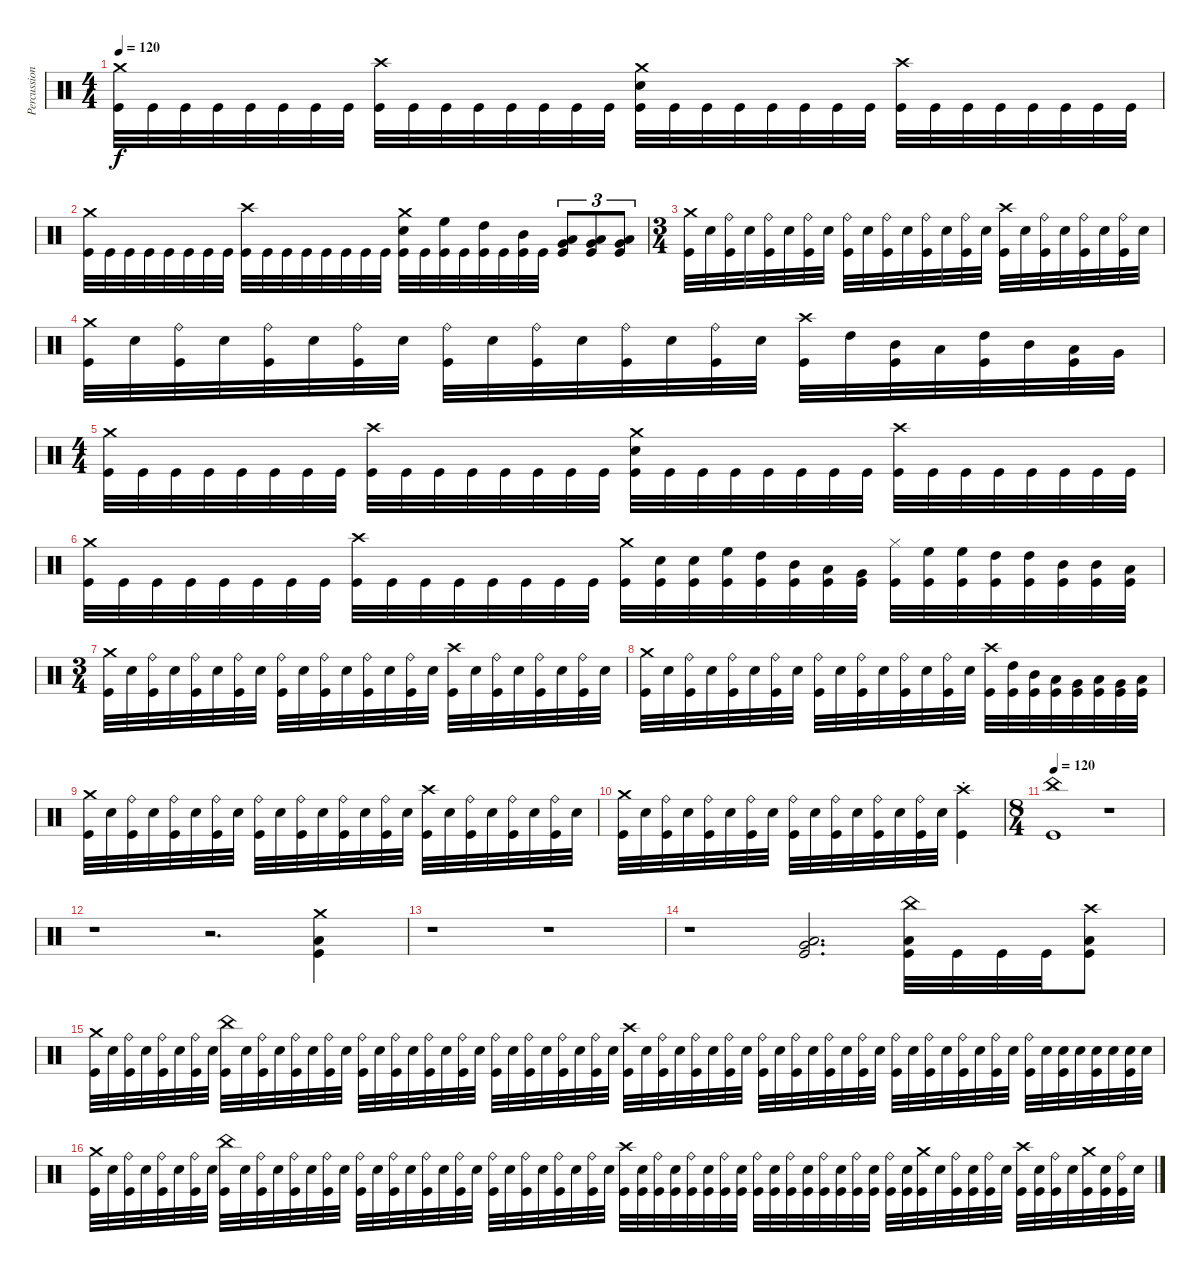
\track ("Percussion" "Percussion") {instrument percussion}
\staff {score}
\articulation defaults
\ts (4 4)
\tempo 120
\clef neutral
\ks c
("Crash medium (hit)" "Kick (hit)").32{dy f} "Kick (hit)".32 "Kick (hit)".32 "Kick (hit)".32 "Kick (hit)".32 "Kick (hit)".32 "Kick (hit)".32 "Kick (hit)".32 ("Crash high (hit)" "Kick (hit)").32 "Kick (hit)".32 "Kick (hit)".32 "Kick (hit)".32 "Kick (hit)".32 "Kick (hit)".32 "Kick (hit)".32 "Kick (hit)".32 ("Crash medium (hit)" "Snare (hit) 2" "Kick (hit)").32 "Kick (hit)".32 "Kick (hit)".32 "Kick (hit)".32 "Kick (hit)".32 "Kick (hit)".32 "Kick (hit)".32 "Kick (hit)".32 ("Crash high (hit)" "Kick (hit)").32 "Kick (hit)".32 "Kick (hit)".32 "Kick (hit)".32 "Kick (hit)".32 "Kick (hit)".32 "Kick (hit)".32 "Kick (hit)".32 |
("Crash medium (hit)" "Kick (hit)").32 "Kick (hit)".32 "Kick (hit)".32 "Kick (hit)".32 "Kick (hit)".32 "Kick (hit)".32 "Kick (hit)".32 "Kick (hit)".32 ("Crash high (hit)" "Kick (hit)").32 "Kick (hit)".32 "Kick (hit)".32 "Kick (hit)".32 "Kick (hit)".32 "Kick (hit)".32 "Kick (hit)".32 "Kick (hit)".32 ("Crash medium (hit)" "Snare (hit) 2" "Kick (hit)").32 "Kick (hit)".32 ("High Floor Tom (hit)" "Kick (hit)").32 "Kick (hit)".32 ("High Tom (hit)" "Kick (hit)").32 "Kick (hit)".32 ("Mid Tom (hit)" "Kick (hit)").32 "Kick (hit)".32 ("Very Low Tom (hit)" "Low Floor Tom (hit)" "Kick (hit)").8{tu (3 2)} ("Very Low Tom (hit)" "Low Floor Tom (hit)" "Kick (hit)").8{tu (3 2)} ("Very Low Tom (hit)" "Low Floor Tom (hit)" "Kick (hit)").8{tu (3 2)} |
\ts (3 4)
("Crash medium (hit)" "Kick (hit)").32 "Snare (hit) 2".32 ("Ride (bell)" "Kick (hit)").32 "Snare (hit) 2".32 ("Ride (bell)" "Kick (hit)").32 "Snare (hit) 2".32 ("Ride (bell)" "Kick (hit)").32 "Snare (hit) 2".32 ("Ride (bell)" "Kick (hit)").32 "Snare (hit) 2".32 ("Ride (bell)" "Kick (hit)").32 "Snare (hit) 2".32 ("Ride (bell)" "Kick (hit)").32 "Snare (hit) 2".32 ("Ride (bell)" "Kick (hit)").32 "Snare (hit) 2".32 ("Crash high (hit)" "Kick (hit)").32 "Snare (hit) 2".32 ("Ride (bell)" "Kick (hit)").32 "Snare (hit) 2".32 ("Ride (bell)" "Kick (hit)").32 "Snare (hit) 2".32 ("Ride (bell)" "Kick (hit)").32 "Snare (hit) 2".32 |
("Crash medium (hit)" "Kick (hit)").32 "Snare (hit) 2".32 ("Ride (bell)" "Kick (hit)").32 "Snare (hit) 2".32 ("Ride (bell)" "Kick (hit)").32 "Snare (hit) 2".32 ("Ride (bell)" "Kick (hit)").32 "Snare (hit) 2".32 ("Ride (bell)" "Kick (hit)").32 "Snare (hit) 2".32 ("Ride (bell)" "Kick (hit)").32 "Snare (hit) 2".32 ("Ride (bell)" "Kick (hit)").32 "Snare (hit) 2".32 ("Ride (bell)" "Kick (hit)").32 "Snare (hit) 2".32 ("Crash high (hit)" "Kick (hit)").32 "High Tom (hit)".32 ("Mid Tom (hit)" "Kick (hit)").32 "Low Tom (hit)".32 ("High Tom (hit)" "Kick (hit)").32 "Mid Tom (hit)".32 ("Low Tom (hit)" "Kick (hit)").32 "Very Low Tom (hit)".32 |
\ts (4 4)
("Crash medium (hit)" "Kick (hit)").32 "Kick (hit)".32 "Kick (hit)".32 "Kick (hit)".32 "Kick (hit)".32 "Kick (hit)".32 "Kick (hit)".32 "Kick (hit)".32 ("Crash high (hit)" "Kick (hit)").32 "Kick (hit)".32 "Kick (hit)".32 "Kick (hit)".32 "Kick (hit)".32 "Kick (hit)".32 "Kick (hit)".32 "Kick (hit)".32 ("Crash medium (hit)" "Snare (hit) 2" "Kick (hit)").32 "Kick (hit)".32 "Kick (hit)".32 "Kick (hit)".32 "Kick (hit)".32 "Kick (hit)".32 "Kick (hit)".32 "Kick (hit)".32 ("Crash high (hit)" "Kick (hit)").32 "Kick (hit)".32 "Kick (hit)".32 "Kick (hit)".32 "Kick (hit)".32 "Kick (hit)".32 "Kick (hit)".32 "Kick (hit)".32 |
("Crash medium (hit)" "Kick (hit)").32 "Kick (hit)".32 "Kick (hit)".32 "Kick (hit)".32 "Kick (hit)".32 "Kick (hit)".32 "Kick (hit)".32 "Kick (hit)".32 ("Crash high (hit)" "Kick (hit)").32 "Kick (hit)".32 "Kick (hit)".32 "Kick (hit)".32 "Kick (hit)".32 "Kick (hit)".32 "Kick (hit)".32 "Kick (hit)".32 ("Crash medium (hit)" "Kick (hit)").32 ("Snare (hit) 2" "Kick (hit)").32 ("Snare (hit) 2" "Kick (hit)").32 ("High Floor Tom (hit)" "Kick (hit)").32 ("High Tom (hit)" "Kick (hit)").32 ("Mid Tom (hit)" "Kick (hit)").32 ("Low Tom (hit)" "Kick (hit)").32 ("Very Low Tom (hit)" "Kick (hit)").32 ("Hi-Hat (closed)" "Kick (hit)").32 ("High Floor Tom (hit)" "Kick (hit)").32 ("High Floor Tom (hit)" "Kick (hit)").32 ("High Tom (hit)" "Kick (hit)").32 ("High Tom (hit)" "Kick (hit)").32 ("Mid Tom (hit)" "Kick (hit)").32 ("Mid Tom (hit)" "Kick (hit)").32 ("Low Tom (hit)" "Kick (hit)").32 |
\ts (3 4)
("Crash medium (hit)" "Kick (hit)").32 "Snare (hit) 2".32 ("Ride (bell)" "Kick (hit)").32 "Snare (hit) 2".32 ("Ride (bell)" "Kick (hit)").32 "Snare (hit) 2".32 ("Ride (bell)" "Kick (hit)").32 "Snare (hit) 2".32 ("Ride (bell)" "Kick (hit)").32 "Snare (hit) 2".32 ("Ride (bell)" "Kick (hit)").32 "Snare (hit) 2".32 ("Ride (bell)" "Kick (hit)").32 "Snare (hit) 2".32 ("Ride (bell)" "Kick (hit)").32 "Snare (hit) 2".32 ("Crash high (hit)" "Kick (hit)").32 "Snare (hit) 2".32 ("Ride (bell)" "Kick (hit)").32 "Snare (hit) 2".32 ("Ride (bell)" "Kick (hit)").32 "Snare (hit) 2".32 ("Ride (bell)" "Kick (hit)").32 "Snare (hit) 2".32 |
("Crash medium (hit)" "Kick (hit)").32 "Snare (hit) 2".32 ("Ride (bell)" "Kick (hit)").32 "Snare (hit) 2".32 ("Ride (bell)" "Kick (hit)").32 "Snare (hit) 2".32 ("Ride (bell)" "Kick (hit)").32 "Snare (hit) 2".32 ("Ride (bell)" "Kick (hit)").32 "Snare (hit) 2".32 ("Ride (bell)" "Kick (hit)").32 "Snare (hit) 2".32 ("Ride (bell)" "Kick (hit)").32 "Snare (hit) 2".32 ("Ride (bell)" "Kick (hit)").32 "Snare (hit) 2".32 ("Crash high (hit)" "Kick (hit)").32 ("High Tom (hit)" "Kick (hit)").32 ("Mid Tom (hit)" "Kick (hit)").32 ("Low Tom (hit)" "Kick (hit)").32 ("Very Low Tom (hit)" "Kick (hit)").32 ("Low Tom (hit)" "Kick (hit)").32 ("Very Low Tom (hit)" "Kick (hit)").32 ("Low Floor Tom (hit)" "Kick (hit)").32 |
("Crash medium (hit)" "Kick (hit)").32 "Snare (hit) 2".32 ("Ride (bell)" "Kick (hit)").32 "Snare (hit) 2".32 ("Ride (bell)" "Kick (hit)").32 "Snare (hit) 2".32 ("Ride (bell)" "Kick (hit)").32 "Snare (hit) 2".32 ("Ride (bell)" "Kick (hit)").32 "Snare (hit) 2".32 ("Ride (bell)" "Kick (hit)").32 "Snare (hit) 2".32 ("Ride (bell)" "Kick (hit)").32 "Snare (hit) 2".32 ("Ride (bell)" "Kick (hit)").32 "Snare (hit) 2".32 ("Crash high (hit)" "Kick (hit)").32 "Snare (hit) 2".32 ("Ride (bell)" "Kick (hit)").32 "Snare (hit) 2".32 ("Ride (bell)" "Kick (hit)").32 "Snare (hit) 2".32 ("Ride (bell)" "Kick (hit)").32 "Snare (hit) 2".32 |
("Crash medium (hit)" "Kick (hit)").32 "Snare (hit) 2".32 ("Ride (bell)" "Kick (hit)").32 "Snare (hit) 2".32 ("Ride (bell)" "Kick (hit)").32 "Snare (hit) 2".32 ("Ride (bell)" "Kick (hit)").32 "Snare (hit) 2".32 ("Ride (bell)" "Kick (hit)").32 "Snare (hit) 2".32 ("Ride (bell)" "Kick (hit)").32 "Snare (hit) 2".32 ("Ride (bell)" "Kick (hit)").32 "Snare (hit) 2".32 ("Ride (bell)" "Kick (hit)").32 "Snare (hit) 2".32 ("Crash high (hit)"{st} "Kick (hit)"{st}).4 |
\ts (8 4)
\tempo 120
("China (hit)" "Kick (hit)").1 r.1 |
r.1 r.2{d} ("Low Floor Tom (hit)" "Crash medium (hit)" "Kick (hit)").4 |
r.1 r.1 |
r.1 ("Very Low Tom (hit)" "Low Floor Tom (hit)" "Kick (hit)").2{d} ("Low Floor Tom (hit)" "China (hit)" "Kick (hit)").32 "Kick (hit)".32 "Kick (hit)".32 "Kick (hit)".32 ("Low Floor Tom (hit)" "Crash high (hit)" "Kick (hit)").8 |
("Crash medium (hit)" "Kick (hit)").32 "Snare (hit) 2".32 ("Ride (bell)" "Kick (hit)").32 "Snare (hit) 2".32 ("Ride (bell)" "Kick (hit)").32 "Snare (hit) 2".32 ("Ride (bell)" "Kick (hit)").32 "Snare (hit) 2".32 ("China (hit)" "Kick (hit)").32 "Snare (hit) 2".32 ("Ride (bell)" "Kick (hit)").32 "Snare (hit) 2".32 ("Ride (bell)" "Kick (hit)").32 "Snare (hit) 2".32 ("Ride (bell)" "Kick (hit)").32 "Snare (hit) 2".32 ("Ride (bell)" "Kick (hit)").32 "Snare (hit) 2".32 ("Ride (bell)" "Kick (hit)").32 "Snare (hit) 2".32 ("Ride (bell)" "Kick (hit)").32 "Snare (hit) 2".32 ("Ride (bell)" "Kick (hit)").32 "Snare (hit) 2".32 ("Ride (bell)" "Kick (hit)").32 "Snare (hit) 2".32 ("Ride (bell)" "Kick (hit)").32 "Snare (hit) 2".32 ("Ride (bell)" "Kick (hit)").32 "Snare (hit) 2".32 ("Ride (bell)" "Kick (hit)").32 "Snare (hit) 2".32 ("Crash high (hit)" "Kick (hit)").32 "Snare (hit) 2".32 ("Ride (bell)" "Kick (hit)").32 "Snare (hit) 2".32 ("Ride (bell)" "Kick (hit)").32 "Snare (hit) 2".32 ("Ride (bell)" "Kick (hit)").32 "Snare (hit) 2".32 ("Ride (bell)" "Kick (hit)").32 "Snare (hit) 2".32 ("Ride (bell)" "Kick (hit)").32 "Snare (hit) 2".32 ("Ride (bell)" "Kick (hit)").32 "Snare (hit) 2".32 ("Ride (bell)" "Kick (hit)").32 "Snare (hit) 2".32 ("Ride (bell)" "Kick (hit)").32 "Snare (hit) 2".32 ("Ride (bell)" "Kick (hit)").32 "Snare (hit) 2".32 ("Ride (bell)" "Kick (hit)").32 "Snare (hit) 2".32 ("Ride (bell)" "Kick (hit)").32 "Snare (hit) 2".32 ("Ride (bell)" "Kick (hit)").32 "Snare (hit) 2".32 ("Snare (hit) 2" "Kick (hit)").32 "Snare (hit) 2".32 ("Snare (hit) 2" "Kick (hit)").32 "Snare (hit) 2".32 ("Snare (hit) 2" "Kick (hit)").32 "Snare (hit) 2".32 |
("Crash medium (hit)" "Kick (hit)").32 "Snare (hit) 2".32 ("Ride (bell)" "Kick (hit)").32 "Snare (hit) 2".32 ("Ride (bell)" "Kick (hit)").32 "Snare (hit) 2".32 ("Ride (bell)" "Kick (hit)").32 "Snare (hit) 2".32 ("China (hit)" "Kick (hit)").32 "Snare (hit) 2".32 ("Ride (bell)" "Kick (hit)").32 "Snare (hit) 2".32 ("Ride (bell)" "Kick (hit)").32 "Snare (hit) 2".32 ("Ride (bell)" "Kick (hit)").32 "Snare (hit) 2".32 ("Ride (bell)" "Kick (hit)").32 "Snare (hit) 2".32 ("Ride (bell)" "Kick (hit)").32 "Snare (hit) 2".32 ("Ride (bell)" "Kick (hit)").32 "Snare (hit) 2".32 ("Ride (bell)" "Kick (hit)").32 "Snare (hit) 2".32 ("Ride (bell)" "Kick (hit)").32 "Snare (hit) 2".32 ("Ride (bell)" "Kick (hit)").32 "Snare (hit) 2".32 ("Ride (bell)" "Kick (hit)").32 "Snare (hit) 2".32 ("Ride (bell)" "Kick (hit)").32 "Snare (hit) 2".32 ("Crash high (hit)" "Kick (hit)").32 ("Snare (hit) 2" "Kick (hit)").32 ("Ride (bell)" "Kick (hit)").32 ("Snare (hit) 2" "Kick (hit)").32 ("Ride (bell)" "Kick (hit)").32 ("Snare (hit) 2" "Kick (hit)").32 ("Ride (bell)" "Kick (hit)").32 ("Snare (hit) 2" "Kick (hit)").32 ("Ride (bell)" "Kick (hit)").32 ("Snare (hit) 2" "Kick (hit)").32 ("Ride (bell)" "Kick (hit)").32 ("Snare (hit) 2" "Kick (hit)").32 ("Ride (bell)" "Kick (hit)").32 ("Snare (hit) 2" "Kick (hit)").32 ("Ride (bell)" "Kick (hit)").32 ("Snare (hit) 2" "Kick (hit)").32 ("Ride (bell)" "Kick (hit)").32 ("Snare (hit) 2" "Kick (hit)").32 ("Crash medium (hit)" "Kick (hit)").32 "Snare (hit) 2".32 ("Ride (bell)" "Kick (hit)").32 ("Snare (hit) 2" "Kick (hit)").32 ("Ride (bell)" "Kick (hit)").32 "Snare (hit) 2".32 ("Crash high (hit)" "Kick (hit)").32 ("Snare (hit) 2" "Kick (hit)").32 ("Ride (bell)" "Kick (hit)").32 "Snare (hit) 2".32 ("Crash medium (hit)" "Kick (hit)").32 ("Snare (hit) 2" "Kick (hit)").32 ("Ride (bell)" "Kick (hit)").32 "Snare (hit) 2".32
